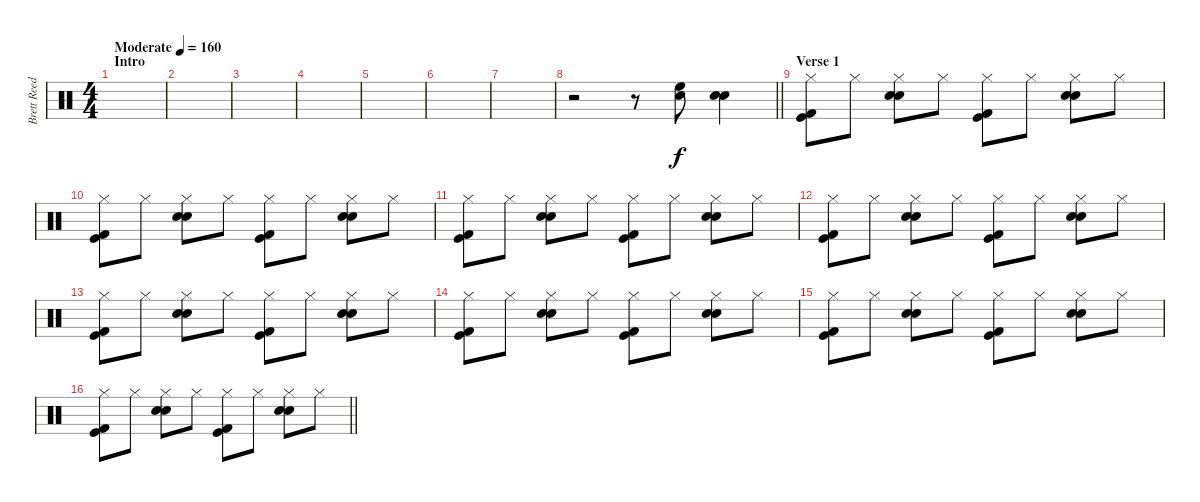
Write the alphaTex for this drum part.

\track ("Brett Reed" "Brett Reed") {instrument percussion}
\staff {score}
\articulation defaults
\ts (4 4)
\section ("" "Intro")
\tempo (160 "Moderate")
\clef neutral
\ks c
|
|
|
|
|
|
|
\barLineRight lightlight
r.2 r.8 ("High Floor Tom (hit)" "Snare (hit) 2").8 ("Electric Snare (hit)" "Snare (hit) 2").4 |
\section ("" "Verse 1")
("Hi-Hat (closed)" "Kick (hit) 2" "Kick (hit)").8 "Hi-Hat (closed)".8 ("Hi-Hat (closed)" "Electric Snare (hit)" "Snare (hit) 2").8 "Hi-Hat (closed)".8 ("Hi-Hat (closed)" "Kick (hit) 2" "Kick (hit)").8 "Hi-Hat (closed)".8 ("Hi-Hat (closed)" "Electric Snare (hit)" "Snare (hit) 2").8 "Hi-Hat (closed)".8 |
("Hi-Hat (closed)" "Kick (hit) 2" "Kick (hit)").8 "Hi-Hat (closed)".8 ("Hi-Hat (closed)" "Electric Snare (hit)" "Snare (hit) 2").8 "Hi-Hat (closed)".8 ("Hi-Hat (closed)" "Kick (hit) 2" "Kick (hit)").8 "Hi-Hat (closed)".8 ("Hi-Hat (closed)" "Electric Snare (hit)" "Snare (hit) 2").8 "Hi-Hat (closed)".8 |
("Hi-Hat (closed)" "Kick (hit) 2" "Kick (hit)").8 "Hi-Hat (closed)".8 ("Hi-Hat (closed)" "Electric Snare (hit)" "Snare (hit) 2").8 "Hi-Hat (closed)".8 ("Hi-Hat (closed)" "Kick (hit) 2" "Kick (hit)").8 "Hi-Hat (closed)".8 ("Hi-Hat (closed)" "Electric Snare (hit)" "Snare (hit) 2").8 "Hi-Hat (closed)".8 |
("Hi-Hat (closed)" "Kick (hit) 2" "Kick (hit)").8 "Hi-Hat (closed)".8 ("Hi-Hat (closed)" "Electric Snare (hit)" "Snare (hit) 2").8 "Hi-Hat (closed)".8 ("Hi-Hat (closed)" "Kick (hit) 2" "Kick (hit)").8 "Hi-Hat (closed)".8 ("Hi-Hat (closed)" "Electric Snare (hit)" "Snare (hit) 2").8 "Hi-Hat (closed)".8 |
("Hi-Hat (closed)" "Kick (hit) 2" "Kick (hit)").8 "Hi-Hat (closed)".8 ("Hi-Hat (closed)" "Electric Snare (hit)" "Snare (hit) 2").8 "Hi-Hat (closed)".8 ("Hi-Hat (closed)" "Kick (hit) 2" "Kick (hit)").8 "Hi-Hat (closed)".8 ("Hi-Hat (closed)" "Electric Snare (hit)" "Snare (hit) 2").8 "Hi-Hat (closed)".8 |
("Hi-Hat (closed)" "Kick (hit) 2" "Kick (hit)").8 "Hi-Hat (closed)".8 ("Hi-Hat (closed)" "Electric Snare (hit)" "Snare (hit) 2").8 "Hi-Hat (closed)".8 ("Hi-Hat (closed)" "Kick (hit) 2" "Kick (hit)").8 "Hi-Hat (closed)".8 ("Hi-Hat (closed)" "Electric Snare (hit)" "Snare (hit) 2").8 "Hi-Hat (closed)".8 |
("Hi-Hat (closed)" "Kick (hit) 2" "Kick (hit)").8 "Hi-Hat (closed)".8 ("Hi-Hat (closed)" "Electric Snare (hit)" "Snare (hit) 2").8 "Hi-Hat (closed)".8 ("Hi-Hat (closed)" "Kick (hit) 2" "Kick (hit)").8 "Hi-Hat (closed)".8 ("Hi-Hat (closed)" "Electric Snare (hit)" "Snare (hit) 2").8 "Hi-Hat (closed)".8 |
\barLineRight lightlight
("Hi-Hat (closed)" "Kick (hit) 2" "Kick (hit)").8 "Hi-Hat (closed)".8 ("Hi-Hat (closed)" "Electric Snare (hit)" "Snare (hit) 2").8 "Hi-Hat (closed)".8 ("Hi-Hat (closed)" "Kick (hit) 2" "Kick (hit)").8 "Hi-Hat (closed)".8 ("Hi-Hat (closed)" "Electric Snare (hit)" "Snare (hit) 2").8 "Hi-Hat (closed)".8
